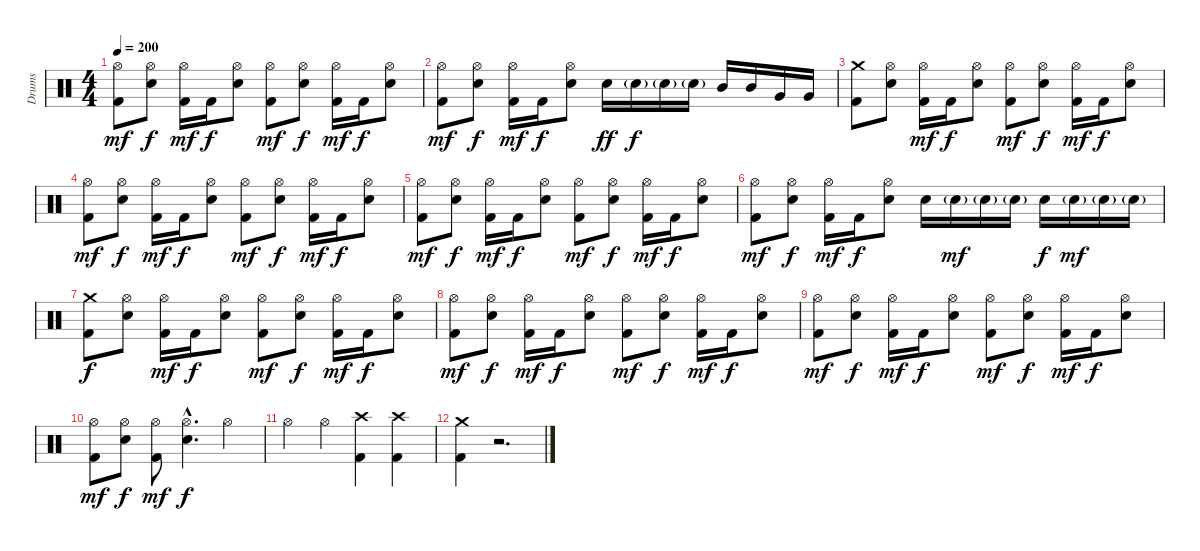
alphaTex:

\track ("Drums" "Drums") {instrument percussion}
\staff {score}
\articulation defaults
\ts (4 4)
\tempo 200
\clef neutral
\ks c
("Hi-Hat (open)" "Kick (hit) 2").8{dy mf} ("Hi-Hat (open)" "Electric Snare (hit)").8{dy f} ("Hi-Hat (open)" "Kick (hit) 2").16{dy mf} "Kick (hit) 2".16{dy f} ("Hi-Hat (open)" "Electric Snare (hit)").8 ("Hi-Hat (open)" "Kick (hit) 2").8{dy mf} ("Hi-Hat (open)" "Electric Snare (hit)").8{dy f} ("Hi-Hat (open)" "Kick (hit) 2").16{dy mf} "Kick (hit) 2".16{dy f} ("Hi-Hat (open)" "Electric Snare (hit)").8 |
("Hi-Hat (open)" "Kick (hit) 2").8{dy mf} ("Hi-Hat (open)" "Electric Snare (hit)").8{dy f} ("Hi-Hat (open)" "Kick (hit) 2").16{dy mf} "Kick (hit) 2".16{dy f} ("Hi-Hat (open)" "Electric Snare (hit)").8 "Electric Snare (hit)".16{dy ff} "Electric Snare (hit)"{g}.16{dy f} "Electric Snare (hit)"{g}.16 "Electric Snare (hit)"{g}.16 "Mid Tom (hit)".16 "Mid Tom (hit)".16 "Very Low Tom (hit)".16 "Very Low Tom (hit)".16 |
("Crash medium (hit)" "Kick (hit) 2").8 ("Hi-Hat (open)" "Electric Snare (hit)").8 ("Hi-Hat (open)" "Kick (hit) 2").16{dy mf} "Kick (hit) 2".16{dy f} ("Hi-Hat (open)" "Electric Snare (hit)").8 ("Hi-Hat (open)" "Kick (hit) 2").8{dy mf} ("Hi-Hat (open)" "Electric Snare (hit)").8{dy f} ("Hi-Hat (open)" "Kick (hit) 2").16{dy mf} "Kick (hit) 2".16{dy f} ("Hi-Hat (open)" "Electric Snare (hit)").8 |
("Hi-Hat (open)" "Kick (hit) 2").8{dy mf} ("Hi-Hat (open)" "Electric Snare (hit)").8{dy f} ("Hi-Hat (open)" "Kick (hit) 2").16{dy mf} "Kick (hit) 2".16{dy f} ("Hi-Hat (open)" "Electric Snare (hit)").8 ("Hi-Hat (open)" "Kick (hit) 2").8{dy mf} ("Hi-Hat (open)" "Electric Snare (hit)").8{dy f} ("Hi-Hat (open)" "Kick (hit) 2").16{dy mf} "Kick (hit) 2".16{dy f} ("Hi-Hat (open)" "Electric Snare (hit)").8 |
("Hi-Hat (open)" "Kick (hit) 2").8{dy mf} ("Hi-Hat (open)" "Electric Snare (hit)").8{dy f} ("Hi-Hat (open)" "Kick (hit) 2").16{dy mf} "Kick (hit) 2".16{dy f} ("Hi-Hat (open)" "Electric Snare (hit)").8 ("Hi-Hat (open)" "Kick (hit) 2").8{dy mf} ("Hi-Hat (open)" "Electric Snare (hit)").8{dy f} ("Hi-Hat (open)" "Kick (hit) 2").16{dy mf} "Kick (hit) 2".16{dy f} ("Hi-Hat (open)" "Electric Snare (hit)").8 |
("Hi-Hat (open)" "Kick (hit) 2").8{dy mf} ("Hi-Hat (open)" "Electric Snare (hit)").8{dy f} ("Hi-Hat (open)" "Kick (hit) 2").16{dy mf} "Kick (hit) 2".16{dy f} ("Hi-Hat (open)" "Electric Snare (hit)").8 "Electric Snare (hit)".16 "Electric Snare (hit)"{g}.16{dy mf} "Electric Snare (hit)"{g}.16 "Electric Snare (hit)"{g}.16 "Electric Snare (hit)".16{dy f} "Electric Snare (hit)"{g}.16{dy mf} "Electric Snare (hit)"{g}.16 "Electric Snare (hit)"{g}.16 |
("Crash medium (hit)" "Kick (hit) 2").8{dy f} ("Hi-Hat (open)" "Electric Snare (hit)").8 ("Hi-Hat (open)" "Kick (hit) 2").16{dy mf} "Kick (hit) 2".16{dy f} ("Hi-Hat (open)" "Electric Snare (hit)").8 ("Hi-Hat (open)" "Kick (hit) 2").8{dy mf} ("Hi-Hat (open)" "Electric Snare (hit)").8{dy f} ("Hi-Hat (open)" "Kick (hit) 2").16{dy mf} "Kick (hit) 2".16{dy f} ("Hi-Hat (open)" "Electric Snare (hit)").8 |
("Hi-Hat (open)" "Kick (hit) 2").8{dy mf} ("Hi-Hat (open)" "Electric Snare (hit)").8{dy f} ("Hi-Hat (open)" "Kick (hit) 2").16{dy mf} "Kick (hit) 2".16{dy f} ("Hi-Hat (open)" "Electric Snare (hit)").8 ("Hi-Hat (open)" "Kick (hit) 2").8{dy mf} ("Hi-Hat (open)" "Electric Snare (hit)").8{dy f} ("Hi-Hat (open)" "Kick (hit) 2").16{dy mf} "Kick (hit) 2".16{dy f} ("Hi-Hat (open)" "Electric Snare (hit)").8 |
("Hi-Hat (open)" "Kick (hit) 2").8{dy mf} ("Hi-Hat (open)" "Electric Snare (hit)").8{dy f} ("Hi-Hat (open)" "Kick (hit) 2").16{dy mf} "Kick (hit) 2".16{dy f} ("Hi-Hat (open)" "Electric Snare (hit)").8 ("Hi-Hat (open)" "Kick (hit) 2").8{dy mf} ("Hi-Hat (open)" "Electric Snare (hit)").8{dy f} ("Hi-Hat (open)" "Kick (hit) 2").16{dy mf} "Kick (hit) 2".16{dy f} ("Hi-Hat (open)" "Electric Snare (hit)").8 |
("Hi-Hat (open)" "Kick (hit) 2").8{dy mf} ("Hi-Hat (open)" "Electric Snare (hit)").8{dy f} ("Hi-Hat (open)" "Kick (hit) 2").8{dy mf} ("Hi-Hat (open)"{hac} "Electric Snare (hit)"{hac}).4{d dy f} "Hi-Hat (open)".4 |
"Hi-Hat (open)".4 "Hi-Hat (open)".4 ("Crash high (hit)" "Kick (hit) 2").4 ("Crash high (hit)" "Kick (hit) 2").4 |
("Crash medium (hit)" "Kick (hit) 2").4 r.2{d}
